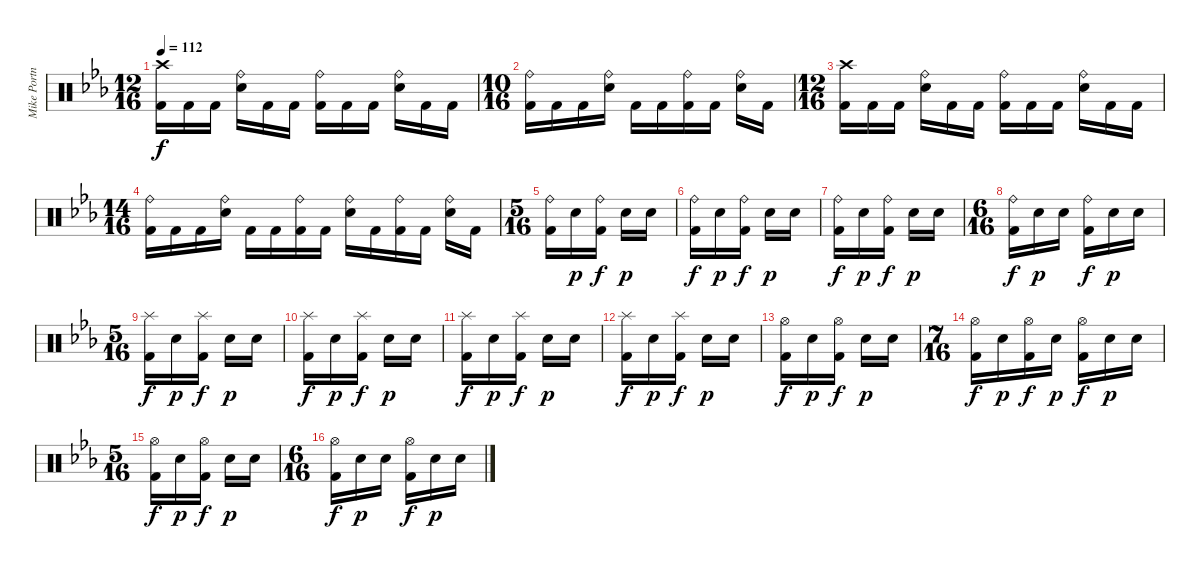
\track ("Mike Portnoy" "Mike Portn") {instrument percussion}
\staff {score}
\articulation defaults
\ts (12 16)
\tempo 112
\clef neutral
\ks eb
("Crash high (hit)" "Kick (hit) 2").16{dy f} "Kick (hit) 2".16 "Kick (hit) 2".16 ("Ride (bell)" "Snare (hit) 2").16 "Kick (hit) 2".16 "Kick (hit) 2".16 ("Ride (bell)" "Kick (hit) 2").16 "Kick (hit) 2".16 "Kick (hit) 2".16 ("Ride (bell)" "Snare (hit) 2").16 "Kick (hit) 2".16 "Kick (hit) 2".16 |
\ts (10 16)
("Ride (bell)" "Kick (hit) 2").16 "Kick (hit) 2".16 "Kick (hit) 2".16 ("Ride (bell)" "Snare (hit) 2").16 "Kick (hit) 2".16 "Kick (hit) 2".16 ("Ride (bell)" "Kick (hit) 2").16 "Kick (hit) 2".16 ("Ride (bell)" "Snare (hit) 2").16 "Kick (hit) 2".16 |
\ts (12 16)
("Crash high (hit)" "Kick (hit) 2").16 "Kick (hit) 2".16 "Kick (hit) 2".16 ("Ride (bell)" "Snare (hit) 2").16 "Kick (hit) 2".16 "Kick (hit) 2".16 ("Ride (bell)" "Kick (hit) 2").16 "Kick (hit) 2".16 "Kick (hit) 2".16 ("Ride (bell)" "Snare (hit) 2").16 "Kick (hit) 2".16 "Kick (hit) 2".16 |
\ts (14 16)
("Ride (bell)" "Kick (hit) 2").16 "Kick (hit) 2".16 "Kick (hit) 2".16 ("Ride (bell)" "Snare (hit) 2").16 "Kick (hit) 2".16 "Kick (hit) 2".16 ("Ride (bell)" "Kick (hit) 2").16 "Kick (hit) 2".16 ("Ride (bell)" "Snare (hit) 2").16 "Kick (hit) 2".16 ("Ride (bell)" "Kick (hit) 2").16 "Kick (hit) 2".16 ("Ride (bell)" "Snare (hit) 2").16 "Kick (hit) 2".16 |
\ts (5 16)
("Ride (bell)" "Kick (hit) 2").16 "Snare (hit) 2".16{dy p} ("Ride (bell)" "Kick (hit) 2").16{dy f} "Snare (hit) 2".16{dy p} "Snare (hit) 2".16 |
("Ride (bell)" "Kick (hit) 2").16{dy f} "Snare (hit) 2".16{dy p} ("Ride (bell)" "Kick (hit) 2").16{dy f} "Snare (hit) 2".16{dy p} "Snare (hit) 2".16 |
("Ride (bell)" "Kick (hit) 2").16{dy f} "Snare (hit) 2".16{dy p} ("Ride (bell)" "Kick (hit) 2").16{dy f} "Snare (hit) 2".16{dy p} "Snare (hit) 2".16 |
\ts (6 16)
("Ride (bell)" "Kick (hit) 2").16{dy f} "Snare (hit) 2".16{dy p} "Snare (hit) 2".16 ("Ride (bell)" "Kick (hit) 2").16{dy f} "Snare (hit) 2".16{dy p} "Snare (hit) 2".16 |
\ts (5 16)
("Splash (hit)" "Kick (hit) 2").16{dy f} "Snare (hit) 2".16{dy p} ("Splash (hit)" "Kick (hit) 2").16{dy f} "Snare (hit) 2".16{dy p} "Snare (hit) 2".16 |
("Splash (hit)" "Kick (hit) 2").16{dy f} "Snare (hit) 2".16{dy p} ("Splash (hit)" "Kick (hit) 2").16{dy f} "Snare (hit) 2".16{dy p} "Snare (hit) 2".16 |
("Splash (hit)" "Kick (hit) 2").16{dy f} "Snare (hit) 2".16{dy p} ("Splash (hit)" "Kick (hit) 2").16{dy f} "Snare (hit) 2".16{dy p} "Snare (hit) 2".16 |
("Splash (hit)" "Kick (hit) 2").16{dy f} "Snare (hit) 2".16{dy p} ("Splash (hit)" "Kick (hit) 2").16{dy f} "Snare (hit) 2".16{dy p} "Snare (hit) 2".16 |
("Hi-Hat (open)" "Kick (hit) 2").16{dy f} "Snare (hit) 2".16{dy p} ("Hi-Hat (open)" "Kick (hit) 2").16{dy f} "Snare (hit) 2".16{dy p} "Snare (hit) 2".16 |
\ts (7 16)
("Hi-Hat (open)" "Kick (hit) 2").16{dy f} "Snare (hit) 2".16{dy p} ("Hi-Hat (open)" "Kick (hit) 2").16{dy f} "Snare (hit) 2".16{dy p} ("Hi-Hat (open)" "Kick (hit) 2").16{dy f} "Snare (hit) 2".16{dy p} "Snare (hit) 2".16 |
\ts (5 16)
("Hi-Hat (open)" "Kick (hit) 2").16{dy f} "Snare (hit) 2".16{dy p} ("Hi-Hat (open)" "Kick (hit) 2").16{dy f} "Snare (hit) 2".16{dy p} "Snare (hit) 2".16 |
\ts (6 16)
("Hi-Hat (open)" "Kick (hit) 2").16{dy f} "Snare (hit) 2".16{dy p} "Snare (hit) 2".16 ("Hi-Hat (open)" "Kick (hit) 2").16{dy f} "Snare (hit) 2".16{dy p} "Snare (hit) 2".16
